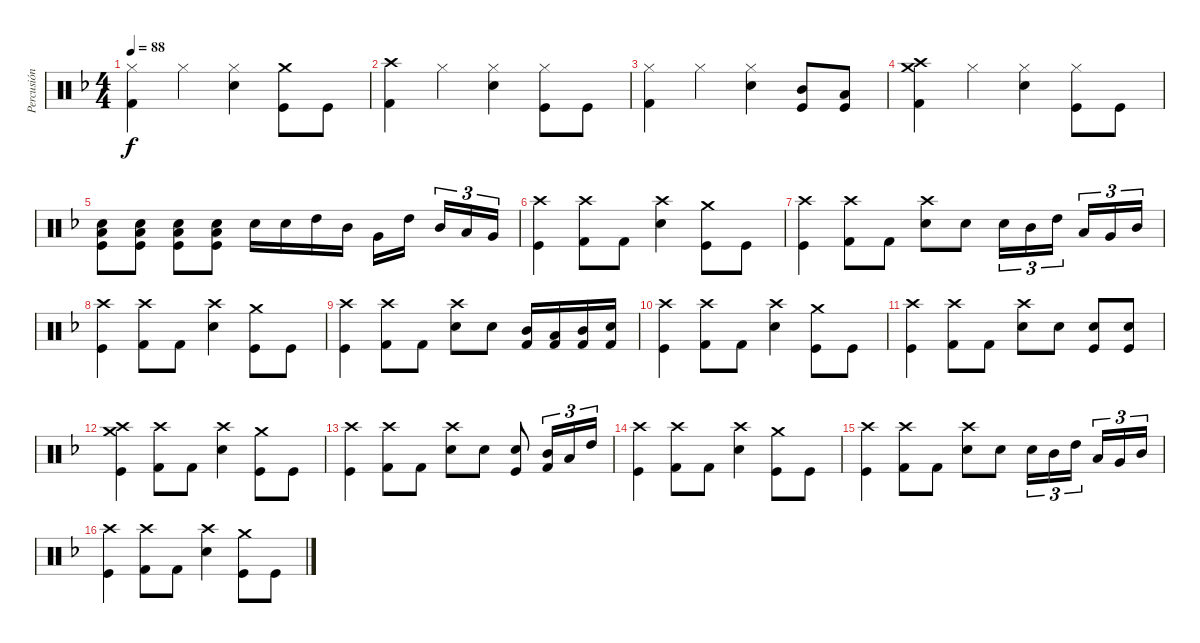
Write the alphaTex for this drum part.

\track ("Percusión" "Percusión") {instrument percussion}
\staff {score}
\articulation defaults
\ts (4 4)
\tempo 88
\clef neutral
\ks f
("Hi-Hat (closed)" "Kick (hit) 2").4{dy f} "Hi-Hat (closed)".4 ("Snare (hit) 2" "Hi-Hat (closed)").4 ("Kick (hit)" "Crash medium (hit)").8 "Kick (hit)".8 |
("Crash high (hit)" "Kick (hit) 2").4 "Hi-Hat (closed)".4 ("Snare (hit) 2" "Hi-Hat (closed)").4 ("Kick (hit)" "Hi-Hat (closed)").8 "Kick (hit)".8 |
("Hi-Hat (closed)" "Kick (hit) 2").4 "Hi-Hat (closed)".4 ("Snare (hit) 2" "Hi-Hat (closed)").4 ("Kick (hit)" "Mid Tom (hit)").8 ("Kick (hit)" "Low Tom (hit)").8 |
("Kick (hit) 2" "Crash high (hit)" "Crash medium (hit)").4 "Hi-Hat (closed)".4 ("Snare (hit) 2" "Hi-Hat (closed)").4 ("Kick (hit)" "Hi-Hat (closed)").8 "Kick (hit)".8 |
("Snare (hit) 2" "Low Floor Tom (hit)" "Kick (hit)").8 ("Snare (hit) 2" "Low Floor Tom (hit)" "Kick (hit)").8 ("Snare (hit) 2" "Low Floor Tom (hit)" "Kick (hit)").8 ("Snare (hit) 2" "Low Floor Tom (hit)" "Kick (hit)").8 "Snare (hit) 2".16 "Snare (hit) 2".16 "High Tom (hit)".16 "Mid Tom (hit)".16 "Very Low Tom (hit)".16 "High Tom (hit)".16{beam splitsecondary} "Mid Tom (hit)".16{tu (3 2)} "Low Tom (hit)".16{tu (3 2)} "Very Low Tom (hit)".16{tu (3 2)} |
("Crash high (hit)" "Kick (hit)").4 ("Crash high (hit)" "Kick (hit) 2").8 "Kick (hit) 2".8 ("Snare (hit) 2" "Crash high (hit)").4 ("Kick (hit)" "Crash medium (hit)").8 "Kick (hit)".8 |
("Crash high (hit)" "Kick (hit)").4 ("Crash high (hit)" "Kick (hit) 2").8 "Kick (hit) 2".8 ("Snare (hit) 2" "Crash high (hit)").8 "Snare (hit) 2".8 "Snare (hit) 2".16{tu (3 2)} "Mid Tom (hit)".16{tu (3 2)} "High Tom (hit)".16{tu (3 2) beam splitsecondary} "Low Tom (hit)".16{tu (3 2)} "Very Low Tom (hit)".16{tu (3 2)} "Mid Tom (hit)".16{tu (3 2)} |
("Crash high (hit)" "Kick (hit)").4 ("Crash high (hit)" "Kick (hit) 2").8 "Kick (hit) 2".8 ("Snare (hit) 2" "Crash high (hit)").4 ("Kick (hit)" "Crash medium (hit)").8 "Kick (hit)".8 |
("Crash high (hit)" "Kick (hit)").4 ("Crash high (hit)" "Kick (hit) 2").8 "Kick (hit) 2".8 ("Snare (hit) 2" "Crash high (hit)").8 "Snare (hit) 2".8 ("Mid Tom (hit)" "Kick (hit) 2").16 ("Low Tom (hit)" "Kick (hit) 2").16 ("Mid Tom (hit)" "Kick (hit) 2").16 ("Snare (hit) 2" "Kick (hit) 2").16 |
("Crash high (hit)" "Kick (hit)").4 ("Crash high (hit)" "Kick (hit) 2").8 "Kick (hit) 2".8 ("Snare (hit) 2" "Crash high (hit)").4 ("Kick (hit)" "Crash medium (hit)").8 "Kick (hit)".8 |
("Crash high (hit)" "Kick (hit)").4 ("Crash high (hit)" "Kick (hit) 2").8 "Kick (hit) 2".8 ("Snare (hit) 2" "Crash high (hit)").8 "Snare (hit) 2".8 ("Kick (hit)" "Snare (hit) 2").8 ("Kick (hit)" "Snare (hit) 2").8 |
("Crash high (hit)" "Kick (hit)" "Crash medium (hit)").4 ("Crash high (hit)" "Kick (hit) 2").8 "Kick (hit) 2".8 ("Snare (hit) 2" "Crash high (hit)").4 ("Kick (hit)" "Crash medium (hit)").8 "Kick (hit)".8 |
("Crash high (hit)" "Kick (hit)").4 ("Crash high (hit)" "Kick (hit) 2").8 "Kick (hit) 2".8 ("Snare (hit) 2" "Crash high (hit)").8 "Snare (hit) 2".8 ("Kick (hit)" "Snare (hit) 2").8 ("Mid Tom (hit)" "Kick (hit) 2").16{tu (3 2)} "Low Tom (hit)".16{tu (3 2)} "High Tom (hit)".16{tu (3 2)} |
("Crash high (hit)" "Kick (hit)").4 ("Crash high (hit)" "Kick (hit) 2").8 "Kick (hit) 2".8 ("Snare (hit) 2" "Crash high (hit)").4 ("Kick (hit)" "Crash medium (hit)").8 "Kick (hit)".8 |
("Crash high (hit)" "Kick (hit)").4 ("Crash high (hit)" "Kick (hit) 2").8 "Kick (hit) 2".8 ("Snare (hit) 2" "Crash high (hit)").8 "Snare (hit) 2".8 "Snare (hit) 2".16{tu (3 2)} "Mid Tom (hit)".16{tu (3 2)} "High Tom (hit)".16{tu (3 2) beam splitsecondary} "Low Tom (hit)".16{tu (3 2)} "Very Low Tom (hit)".16{tu (3 2)} "Mid Tom (hit)".16{tu (3 2)} |
("Crash high (hit)" "Kick (hit)").4 ("Crash high (hit)" "Kick (hit) 2").8 "Kick (hit) 2".8 ("Snare (hit) 2" "Crash high (hit)").4 ("Kick (hit)" "Crash medium (hit)").8 "Kick (hit)".8
